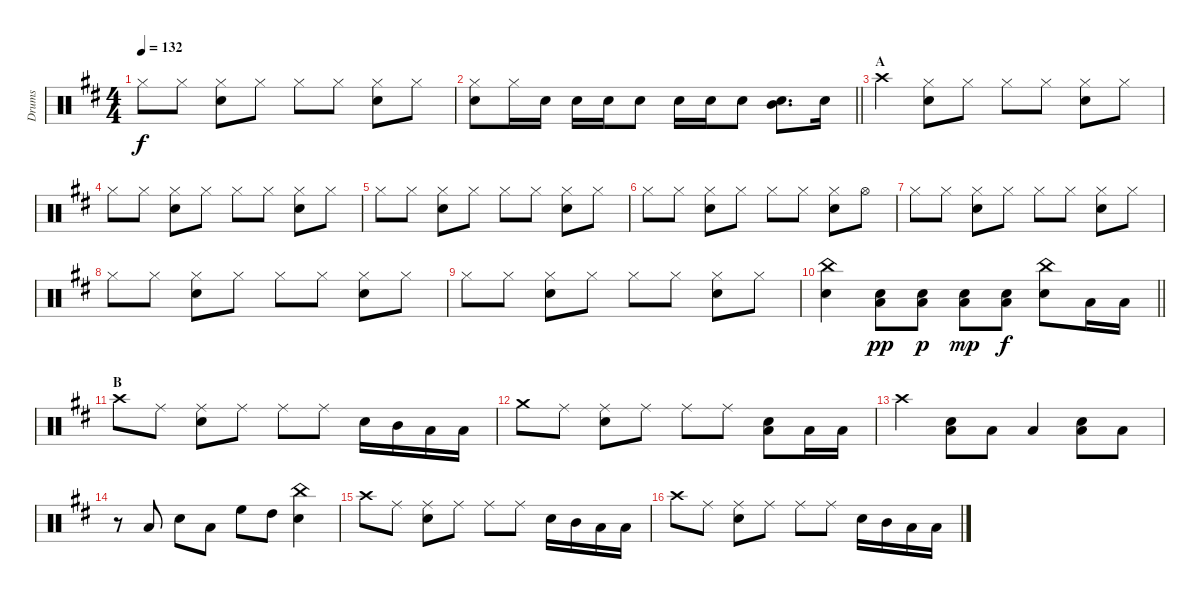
\track ("Drums" "Drums") {instrument percussion}
\staff {score}
\articulation defaults
\ts (4 4)
\tempo 132
\clef neutral
\ks d "Hi-Hat (closed)".8{dy f} "Hi-Hat (closed)".8
("Hi-Hat (closed)" "Snare (hit) 2").8 "Hi-Hat (closed)".8 "Hi-Hat (closed)".8 "Hi-Hat (closed)".8 ("Hi-Hat (closed)" "Snare (hit) 2").8 "Hi-Hat (closed)".8 |
\barLineRight lightlight
("Hi-Hat (closed)" "Snare (hit) 2").8 "Hi-Hat (closed)".16 "Snare (hit) 2".16 "Snare (hit) 2".16 "Snare (hit) 2".16 "Snare (hit) 2".8 "Snare (hit) 2".16 "Snare (hit) 2".16 "Snare (hit) 2".8 ("Snare (hit) 2" "Mid Tom (hit)").8{d} "Snare (hit) 2".16 |
\section ("" "A")
"Crash high (hit)".4 ("Hi-Hat (closed)" "Snare (hit) 2").8 "Hi-Hat (closed)".8 "Hi-Hat (closed)".8 "Hi-Hat (closed)".8 ("Hi-Hat (closed)" "Snare (hit) 2").8 "Hi-Hat (closed)".8 |
"Hi-Hat (closed)".8 "Hi-Hat (closed)".8 ("Hi-Hat (closed)" "Snare (hit) 2").8 "Hi-Hat (closed)".8 "Hi-Hat (closed)".8 "Hi-Hat (closed)".8 ("Hi-Hat (closed)" "Snare (hit) 2").8 "Hi-Hat (closed)".8 |
"Hi-Hat (closed)".8 "Hi-Hat (closed)".8 ("Hi-Hat (closed)" "Snare (hit) 2").8 "Hi-Hat (closed)".8 "Hi-Hat (closed)".8 "Hi-Hat (closed)".8 ("Hi-Hat (closed)" "Snare (hit) 2").8 "Hi-Hat (closed)".8 |
"Hi-Hat (closed)".8 "Hi-Hat (closed)".8 ("Hi-Hat (closed)" "Snare (hit) 2").8 "Hi-Hat (closed)".8 "Hi-Hat (closed)".8 "Hi-Hat (closed)".8 ("Hi-Hat (closed)" "Snare (hit) 2").8 "Hi-Hat (open)".8 |
"Hi-Hat (closed)".8 "Hi-Hat (closed)".8 ("Hi-Hat (closed)" "Snare (hit) 2").8 "Hi-Hat (closed)".8 "Hi-Hat (closed)".8 "Hi-Hat (closed)".8 ("Hi-Hat (closed)" "Snare (hit) 2").8 "Hi-Hat (closed)".8 |
"Hi-Hat (closed)".8 "Hi-Hat (closed)".8 ("Hi-Hat (closed)" "Snare (hit) 2").8 "Hi-Hat (closed)".8 "Hi-Hat (closed)".8 "Hi-Hat (closed)".8 ("Hi-Hat (closed)" "Snare (hit) 2").8 "Hi-Hat (closed)".8 |
"Hi-Hat (closed)".8 "Hi-Hat (closed)".8 ("Hi-Hat (closed)" "Snare (hit) 2").8 "Hi-Hat (closed)".8 "Hi-Hat (closed)".8 "Hi-Hat (closed)".8 ("Hi-Hat (closed)" "Snare (hit) 2").8 "Hi-Hat (closed)".8 |
\barLineRight lightlight
("China (hit)" "Snare (hit) 2").4 ("Snare (hit) 2" "Low Tom (hit)").8{dy pp} ("Snare (hit) 2" "Low Tom (hit)").8{dy p} ("Snare (hit) 2" "Low Tom (hit)").8{dy mp} ("Snare (hit) 2" "Low Tom (hit)").8{dy f} ("China (hit)" "Snare (hit) 2").8 "Low Tom (hit)".16 "Low Tom (hit)".16 |
\section ("" "B")
"Crash high (hit)".8 "Ride (middle)".8 ("Ride (middle)" "Snare (hit) 2").8 "Ride (middle)".8 "Ride (middle)".8 "Ride (middle)".8 "Snare (hit) 2".16 "Mid Tom (hit)".16 "Low Tom (hit)".16 "Low Tom (hit)".16 |
"Crash medium (hit)".8 "Ride (middle)".8 ("Ride (middle)" "Snare (hit) 2").8 "Ride (middle)".8 "Ride (middle)".8 "Ride (middle)".8 ("Snare (hit) 2" "Low Tom (hit)").8 "Low Tom (hit)".16 "Low Tom (hit)".16 |
"Crash high (hit)".4 ("Snare (hit) 2" "Low Tom (hit)").8 "Low Tom (hit)".8 "Low Tom (hit)".4 ("Low Tom (hit)" "Snare (hit) 2").8 "Low Tom (hit)".8 |
r.8 "Low Tom (hit)".8 "Snare (hit) 2".8 "Low Tom (hit)".8 "High Floor Tom (hit)".8 "High Tom (hit)".8 ("China (hit)" "Snare (hit) 2").4 |
"Crash high (hit)".8 "Ride (middle)".8 ("Ride (middle)" "Snare (hit) 2").8 "Ride (middle)".8 "Ride (middle)".8 "Ride (middle)".8 "Snare (hit) 2".16 "Mid Tom (hit)".16 "Low Tom (hit)".16 "Low Tom (hit)".16 |
"Crash high (hit)".8 "Ride (middle)".8 ("Ride (middle)" "Snare (hit) 2").8 "Ride (middle)".8 "Ride (middle)".8 "Ride (middle)".8 "Snare (hit) 2".16 "Mid Tom (hit)".16 "Low Tom (hit)".16 "Low Tom (hit)".16
